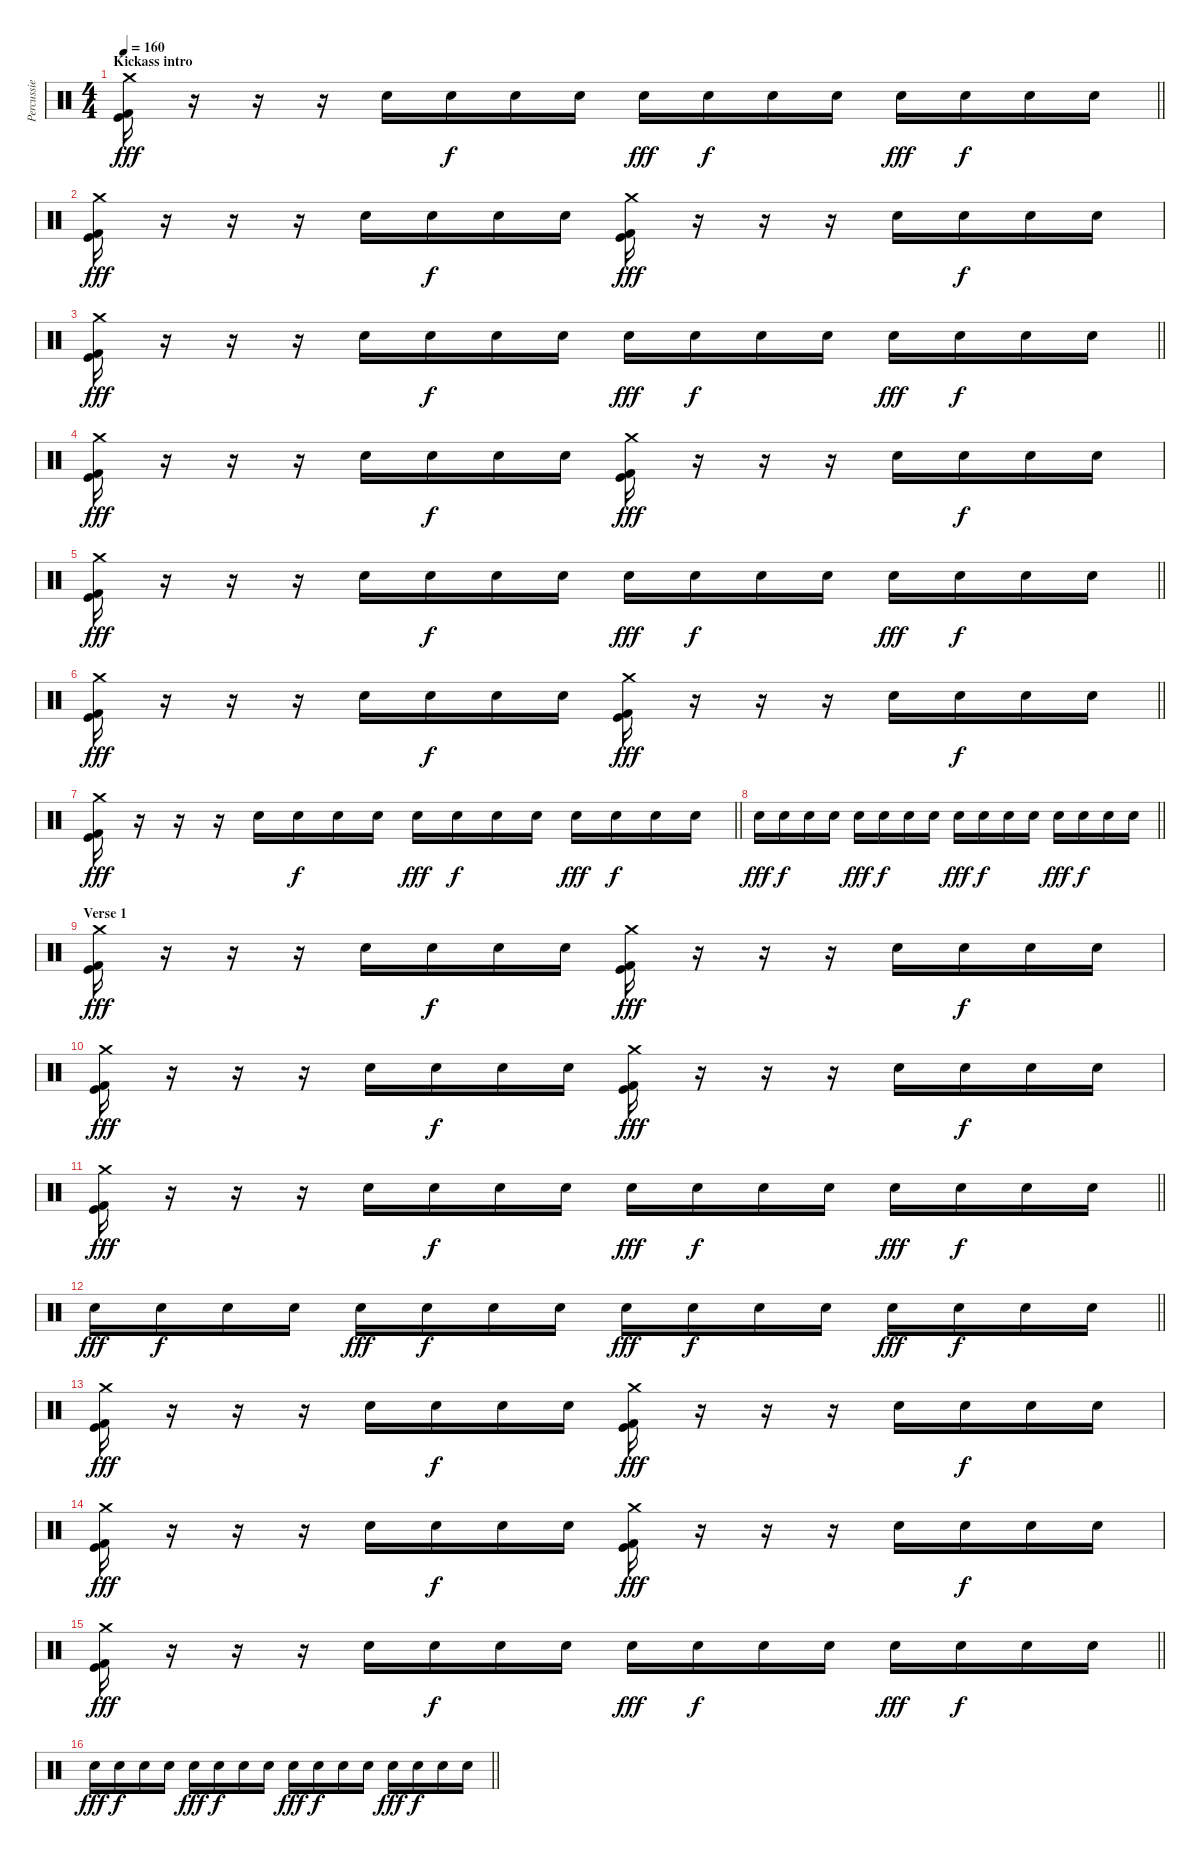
\track ("Percussie" "Percussie") {instrument percussion}
\staff {score}
\articulation defaults
\ts (4 4)
\section ("" "Kickass intro")
\tempo 160
\clef neutral
\barLineRight lightlight
\ks c
("Crash medium (hit)" "Kick (hit)" "Kick (hit) 2").16{dy fff} r.16 r.16 r.16 "Snare (hit) 2".16 "Snare (hit) 2".16{dy f} "Snare (hit) 2".16 "Snare (hit) 2".16 "Snare (hit) 2".16{dy fff} "Snare (hit) 2".16{dy f} "Snare (hit) 2".16 "Snare (hit) 2".16 "Snare (hit) 2".16{dy fff} "Snare (hit) 2".16{dy f} "Snare (hit) 2".16 "Snare (hit) 2".16 |
("Crash medium (hit)" "Kick (hit)" "Kick (hit) 2").16{dy fff} r.16 r.16 r.16 "Snare (hit) 2".16 "Snare (hit) 2".16{dy f} "Snare (hit) 2".16 "Snare (hit) 2".16 ("Crash medium (hit)" "Kick (hit)" "Kick (hit) 2").16{dy fff} r.16 r.16 r.16 "Snare (hit) 2".16 "Snare (hit) 2".16{dy f} "Snare (hit) 2".16 "Snare (hit) 2".16 |
\barLineRight lightlight
("Crash medium (hit)" "Kick (hit)" "Kick (hit) 2").16{dy fff} r.16 r.16 r.16 "Snare (hit) 2".16 "Snare (hit) 2".16{dy f} "Snare (hit) 2".16 "Snare (hit) 2".16 "Snare (hit) 2".16{dy fff} "Snare (hit) 2".16{dy f} "Snare (hit) 2".16 "Snare (hit) 2".16 "Snare (hit) 2".16{dy fff} "Snare (hit) 2".16{dy f} "Snare (hit) 2".16 "Snare (hit) 2".16 |
("Crash medium (hit)" "Kick (hit)" "Kick (hit) 2").16{dy fff} r.16 r.16 r.16 "Snare (hit) 2".16 "Snare (hit) 2".16{dy f} "Snare (hit) 2".16 "Snare (hit) 2".16 ("Crash medium (hit)" "Kick (hit)" "Kick (hit) 2").16{dy fff} r.16 r.16 r.16 "Snare (hit) 2".16 "Snare (hit) 2".16{dy f} "Snare (hit) 2".16 "Snare (hit) 2".16 |
\barLineRight lightlight
("Crash medium (hit)" "Kick (hit)" "Kick (hit) 2").16{dy fff} r.16 r.16 r.16 "Snare (hit) 2".16 "Snare (hit) 2".16{dy f} "Snare (hit) 2".16 "Snare (hit) 2".16 "Snare (hit) 2".16{dy fff} "Snare (hit) 2".16{dy f} "Snare (hit) 2".16 "Snare (hit) 2".16 "Snare (hit) 2".16{dy fff} "Snare (hit) 2".16{dy f} "Snare (hit) 2".16 "Snare (hit) 2".16 |
\barLineRight lightlight
("Crash medium (hit)" "Kick (hit)" "Kick (hit) 2").16{dy fff} r.16 r.16 r.16 "Snare (hit) 2".16 "Snare (hit) 2".16{dy f} "Snare (hit) 2".16 "Snare (hit) 2".16 ("Crash medium (hit)" "Kick (hit)" "Kick (hit) 2").16{dy fff} r.16 r.16 r.16 "Snare (hit) 2".16 "Snare (hit) 2".16{dy f} "Snare (hit) 2".16 "Snare (hit) 2".16 |
\barLineRight lightlight
("Crash medium (hit)" "Kick (hit)" "Kick (hit) 2").16{dy fff} r.16 r.16 r.16 "Snare (hit) 2".16 "Snare (hit) 2".16{dy f} "Snare (hit) 2".16 "Snare (hit) 2".16 "Snare (hit) 2".16{dy fff} "Snare (hit) 2".16{dy f} "Snare (hit) 2".16 "Snare (hit) 2".16 "Snare (hit) 2".16{dy fff} "Snare (hit) 2".16{dy f} "Snare (hit) 2".16 "Snare (hit) 2".16 |
\barLineRight lightlight "Snare (hit) 2".16{dy fff} "Snare (hit) 2".16{dy f} "Snare (hit) 2".16 "Snare (hit) 2".16 "Snare (hit) 2".16{dy fff} "Snare (hit) 2".16{dy f} "Snare (hit) 2".16 "Snare (hit) 2".16 "Snare (hit) 2".16{dy fff} "Snare (hit) 2".16{dy f} "Snare (hit) 2".16 "Snare (hit) 2".16 "Snare (hit) 2".16{dy fff} "Snare (hit) 2".16{dy f} "Snare (hit) 2".16 "Snare (hit) 2".16
|
\section ("" "Verse 1")
("Crash medium (hit)" "Kick (hit)" "Kick (hit) 2").16{dy fff} r.16 r.16 r.16 "Snare (hit) 2".16 "Snare (hit) 2".16{dy f} "Snare (hit) 2".16 "Snare (hit) 2".16 ("Crash medium (hit)" "Kick (hit)" "Kick (hit) 2").16{dy fff} r.16 r.16 r.16 "Snare (hit) 2".16 "Snare (hit) 2".16{dy f} "Snare (hit) 2".16 "Snare (hit) 2".16 |
("Crash medium (hit)" "Kick (hit)" "Kick (hit) 2").16{dy fff} r.16 r.16 r.16 "Snare (hit) 2".16 "Snare (hit) 2".16{dy f} "Snare (hit) 2".16 "Snare (hit) 2".16 ("Crash medium (hit)" "Kick (hit)" "Kick (hit) 2").16{dy fff} r.16 r.16 r.16 "Snare (hit) 2".16 "Snare (hit) 2".16{dy f} "Snare (hit) 2".16 "Snare (hit) 2".16 |
\barLineRight lightlight
("Crash medium (hit)" "Kick (hit)" "Kick (hit) 2").16{dy fff} r.16 r.16 r.16 "Snare (hit) 2".16 "Snare (hit) 2".16{dy f} "Snare (hit) 2".16 "Snare (hit) 2".16 "Snare (hit) 2".16{dy fff} "Snare (hit) 2".16{dy f} "Snare (hit) 2".16 "Snare (hit) 2".16 "Snare (hit) 2".16{dy fff} "Snare (hit) 2".16{dy f} "Snare (hit) 2".16 "Snare (hit) 2".16 |
\barLineRight lightlight "Snare (hit) 2".16{dy fff} "Snare (hit) 2".16{dy f} "Snare (hit) 2".16 "Snare (hit) 2".16 "Snare (hit) 2".16{dy fff} "Snare (hit) 2".16{dy f} "Snare (hit) 2".16 "Snare (hit) 2".16 "Snare (hit) 2".16{dy fff} "Snare (hit) 2".16{dy f} "Snare (hit) 2".16 "Snare (hit) 2".16 "Snare (hit) 2".16{dy fff} "Snare (hit) 2".16{dy f} "Snare (hit) 2".16 "Snare (hit) 2".16
|
("Crash medium (hit)" "Kick (hit)" "Kick (hit) 2").16{dy fff} r.16 r.16 r.16 "Snare (hit) 2".16 "Snare (hit) 2".16{dy f} "Snare (hit) 2".16 "Snare (hit) 2".16 ("Crash medium (hit)" "Kick (hit)" "Kick (hit) 2").16{dy fff} r.16 r.16 r.16 "Snare (hit) 2".16 "Snare (hit) 2".16{dy f} "Snare (hit) 2".16 "Snare (hit) 2".16 |
("Crash medium (hit)" "Kick (hit)" "Kick (hit) 2").16{dy fff} r.16 r.16 r.16 "Snare (hit) 2".16 "Snare (hit) 2".16{dy f} "Snare (hit) 2".16 "Snare (hit) 2".16 ("Crash medium (hit)" "Kick (hit)" "Kick (hit) 2").16{dy fff} r.16 r.16 r.16 "Snare (hit) 2".16 "Snare (hit) 2".16{dy f} "Snare (hit) 2".16 "Snare (hit) 2".16 |
\barLineRight lightlight
("Crash medium (hit)" "Kick (hit)" "Kick (hit) 2").16{dy fff} r.16 r.16 r.16 "Snare (hit) 2".16 "Snare (hit) 2".16{dy f} "Snare (hit) 2".16 "Snare (hit) 2".16 "Snare (hit) 2".16{dy fff} "Snare (hit) 2".16{dy f} "Snare (hit) 2".16 "Snare (hit) 2".16 "Snare (hit) 2".16{dy fff} "Snare (hit) 2".16{dy f} "Snare (hit) 2".16 "Snare (hit) 2".16 |
\barLineRight lightlight "Snare (hit) 2".16{dy fff} "Snare (hit) 2".16{dy f} "Snare (hit) 2".16 "Snare (hit) 2".16 "Snare (hit) 2".16{dy fff} "Snare (hit) 2".16{dy f} "Snare (hit) 2".16 "Snare (hit) 2".16 "Snare (hit) 2".16{dy fff} "Snare (hit) 2".16{dy f} "Snare (hit) 2".16 "Snare (hit) 2".16 "Snare (hit) 2".16{dy fff} "Snare (hit) 2".16{dy f} "Snare (hit) 2".16 "Snare (hit) 2".16
